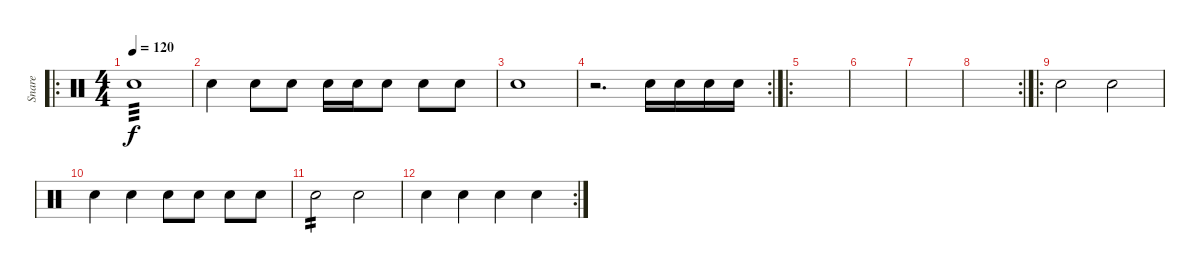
\track ("Snare" "Snare") {instrument percussion}
\staff {score}
\articulation defaults
\ro
\ts (4 4)
\tempo 120
\clef neutral
\ks c "Snare (hit) 2".1{tp 3 dy f}
|
"Snare (hit) 2".4 "Snare (hit) 2".8 "Snare (hit) 2".8 "Snare (hit) 2".16 "Snare (hit) 2".16 "Snare (hit) 2".8 "Snare (hit) 2".8 "Snare (hit) 2".8 |
"Snare (hit) 2".1 |
\rc 2
r.2{d} "Snare (hit) 2".16 "Snare (hit) 2".16 "Snare (hit) 2".16 "Snare (hit) 2".16 |
\ro
|
|
|
\rc 2
|
\ro "Snare (hit) 2".2 "Snare (hit) 2".2
|
"Snare (hit) 2".4 "Snare (hit) 2".4 "Snare (hit) 2".8 "Snare (hit) 2".8 "Snare (hit) 2".8 "Snare (hit) 2".8 |
"Snare (hit) 2".2{tp 2} "Snare (hit) 2".2 |
\rc 2 "Snare (hit) 2".4 "Snare (hit) 2".4 "Snare (hit) 2".4 "Snare (hit) 2".4
